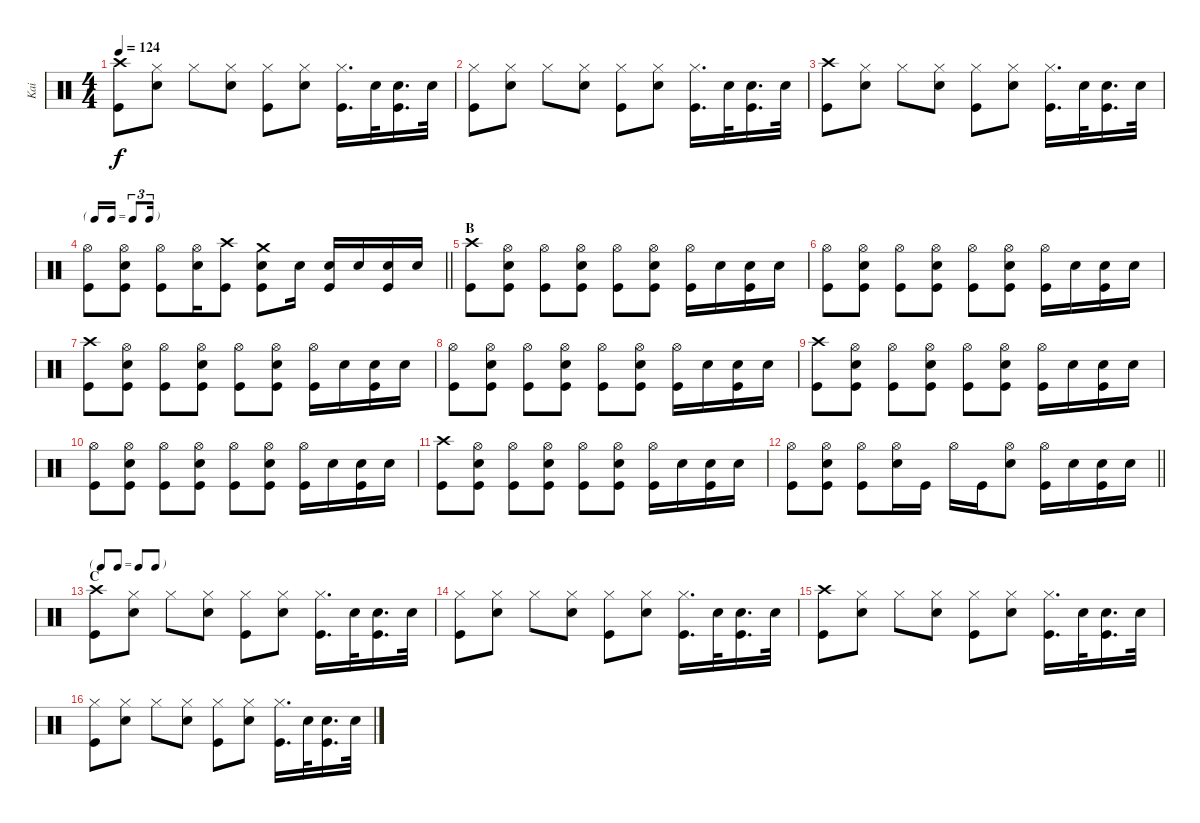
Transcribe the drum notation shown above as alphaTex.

\track ("Kai" "Kai") {instrument percussion}
\staff {score}
\articulation defaults
\ts (4 4)
\tempo 124
\clef neutral
\ks c
("Kick (hit)" "Crash high (hit)").8{dy f} ("Hi-Hat (closed)" "Snare (hit) 2").8 "Hi-Hat (closed)".8 ("Hi-Hat (closed)" "Snare (hit) 2").8 ("Kick (hit)" "Hi-Hat (closed)").8 ("Snare (hit) 2" "Hi-Hat (closed)").8 ("Kick (hit)" "Hi-Hat (closed)").16{d} "Snare (hit) 2".32 ("Snare (hit) 2" "Kick (hit)").16{d} "Snare (hit) 2".32 |
("Hi-Hat (closed)" "Kick (hit)").8 ("Hi-Hat (closed)" "Snare (hit) 2").8 "Hi-Hat (closed)".8 ("Hi-Hat (closed)" "Snare (hit) 2").8 ("Kick (hit)" "Hi-Hat (closed)").8 ("Snare (hit) 2" "Hi-Hat (closed)").8 ("Kick (hit)" "Hi-Hat (closed)").16{d} "Snare (hit) 2".32 ("Snare (hit) 2" "Kick (hit)").16{d} "Snare (hit) 2".32 |
("Kick (hit)" "Crash high (hit)").8 ("Hi-Hat (closed)" "Snare (hit) 2").8 "Hi-Hat (closed)".8 ("Hi-Hat (closed)" "Snare (hit) 2").8 ("Kick (hit)" "Hi-Hat (closed)").8 ("Snare (hit) 2" "Hi-Hat (closed)").8 ("Kick (hit)" "Hi-Hat (closed)").16{d} "Snare (hit) 2".32 ("Snare (hit) 2" "Kick (hit)").16{d} "Snare (hit) 2".32 |
\tf triplet16th
\barLineRight lightlight
("Hi-Hat (open)" "Kick (hit)").8 ("Hi-Hat (open)" "Snare (hit) 2" "Kick (hit)").8 ("Hi-Hat (open)" "Kick (hit)").8 ("Hi-Hat (open)" "Snare (hit) 2").16 ("Kick (hit)" "Crash high (hit)").8 ("Crash medium (hit)" "Snare (hit) 2" "Kick (hit)").8 "Snare (hit) 2".16 ("Snare (hit) 2" "Kick (hit)").16 "Snare (hit) 2".16 ("Snare (hit) 2" "Kick (hit)").16 "Snare (hit) 2".16 |
\section ("" "B")
("Kick (hit)" "Crash high (hit)").8 ("Hi-Hat (open)" "Snare (hit) 2" "Kick (hit)").8 ("Hi-Hat (open)" "Kick (hit)").8 ("Hi-Hat (open)" "Snare (hit) 2" "Kick (hit)").8 ("Kick (hit)" "Hi-Hat (open)").8 ("Snare (hit) 2" "Hi-Hat (open)" "Kick (hit)").8 ("Kick (hit)" "Hi-Hat (open)").16 "Snare (hit) 2".16 ("Snare (hit) 2" "Kick (hit)").16 "Snare (hit) 2".16 |
("Hi-Hat (open)" "Kick (hit)").8 ("Hi-Hat (open)" "Snare (hit) 2" "Kick (hit)").8 ("Hi-Hat (open)" "Kick (hit)").8 ("Hi-Hat (open)" "Snare (hit) 2" "Kick (hit)").8 ("Kick (hit)" "Hi-Hat (open)").8 ("Snare (hit) 2" "Hi-Hat (open)" "Kick (hit)").8 ("Kick (hit)" "Hi-Hat (open)").16 "Snare (hit) 2".16 ("Snare (hit) 2" "Kick (hit)").16 "Snare (hit) 2".16 |
("Kick (hit)" "Crash high (hit)").8 ("Hi-Hat (open)" "Snare (hit) 2" "Kick (hit)").8 ("Hi-Hat (open)" "Kick (hit)").8 ("Hi-Hat (open)" "Snare (hit) 2" "Kick (hit)").8 ("Kick (hit)" "Hi-Hat (open)").8 ("Snare (hit) 2" "Hi-Hat (open)" "Kick (hit)").8 ("Kick (hit)" "Hi-Hat (open)").16 "Snare (hit) 2".16 ("Snare (hit) 2" "Kick (hit)").16 "Snare (hit) 2".16 |
("Hi-Hat (open)" "Kick (hit)").8 ("Hi-Hat (open)" "Snare (hit) 2" "Kick (hit)").8 ("Hi-Hat (open)" "Kick (hit)").8 ("Hi-Hat (open)" "Snare (hit) 2" "Kick (hit)").8 ("Kick (hit)" "Hi-Hat (open)").8 ("Snare (hit) 2" "Hi-Hat (open)" "Kick (hit)").8 ("Kick (hit)" "Hi-Hat (open)").16 "Snare (hit) 2".16 ("Snare (hit) 2" "Kick (hit)").16 "Snare (hit) 2".16 |
("Kick (hit)" "Crash high (hit)").8 ("Hi-Hat (open)" "Snare (hit) 2" "Kick (hit)").8 ("Hi-Hat (open)" "Kick (hit)").8 ("Hi-Hat (open)" "Snare (hit) 2" "Kick (hit)").8 ("Kick (hit)" "Hi-Hat (open)").8 ("Snare (hit) 2" "Hi-Hat (open)" "Kick (hit)").8 ("Kick (hit)" "Hi-Hat (open)").16 "Snare (hit) 2".16 ("Snare (hit) 2" "Kick (hit)").16 "Snare (hit) 2".16 |
("Hi-Hat (open)" "Kick (hit)").8 ("Hi-Hat (open)" "Snare (hit) 2" "Kick (hit)").8 ("Hi-Hat (open)" "Kick (hit)").8 ("Hi-Hat (open)" "Snare (hit) 2" "Kick (hit)").8 ("Kick (hit)" "Hi-Hat (open)").8 ("Snare (hit) 2" "Hi-Hat (open)" "Kick (hit)").8 ("Kick (hit)" "Hi-Hat (open)").16 "Snare (hit) 2".16 ("Snare (hit) 2" "Kick (hit)").16 "Snare (hit) 2".16 |
("Kick (hit)" "Crash high (hit)").8 ("Hi-Hat (open)" "Snare (hit) 2" "Kick (hit)").8 ("Hi-Hat (open)" "Kick (hit)").8 ("Hi-Hat (open)" "Snare (hit) 2" "Kick (hit)").8 ("Kick (hit)" "Hi-Hat (open)").8 ("Snare (hit) 2" "Hi-Hat (open)" "Kick (hit)").8 ("Kick (hit)" "Hi-Hat (open)").16 "Snare (hit) 2".16 ("Snare (hit) 2" "Kick (hit)").16 "Snare (hit) 2".16 |
\barLineRight lightlight
("Hi-Hat (open)" "Kick (hit)").8 ("Hi-Hat (open)" "Snare (hit) 2" "Kick (hit)").8 ("Hi-Hat (open)" "Kick (hit)").8 ("Hi-Hat (open)" "Snare (hit) 2").16 "Kick (hit)".16 "Hi-Hat (open)".16 "Kick (hit)".16 ("Snare (hit) 2" "Hi-Hat (open)").8 ("Kick (hit)" "Hi-Hat (open)").16 "Snare (hit) 2".16 ("Snare (hit) 2" "Kick (hit)").16 "Snare (hit) 2".16 |
\tf none
\section ("" "C")
("Kick (hit)" "Crash high (hit)").8 ("Hi-Hat (closed)" "Snare (hit) 2").8 "Hi-Hat (closed)".8 ("Hi-Hat (closed)" "Snare (hit) 2").8 ("Kick (hit)" "Hi-Hat (closed)").8 ("Snare (hit) 2" "Hi-Hat (closed)").8 ("Kick (hit)" "Hi-Hat (closed)").16{d} "Snare (hit) 2".32 ("Snare (hit) 2" "Kick (hit)").16{d} "Snare (hit) 2".32 |
("Hi-Hat (closed)" "Kick (hit)").8 ("Hi-Hat (closed)" "Snare (hit) 2").8 "Hi-Hat (closed)".8 ("Hi-Hat (closed)" "Snare (hit) 2").8 ("Kick (hit)" "Hi-Hat (closed)").8 ("Snare (hit) 2" "Hi-Hat (closed)").8 ("Kick (hit)" "Hi-Hat (closed)").16{d} "Snare (hit) 2".32 ("Snare (hit) 2" "Kick (hit)").16{d} "Snare (hit) 2".32 |
("Kick (hit)" "Crash high (hit)").8 ("Hi-Hat (closed)" "Snare (hit) 2").8 "Hi-Hat (closed)".8 ("Hi-Hat (closed)" "Snare (hit) 2").8 ("Kick (hit)" "Hi-Hat (closed)").8 ("Snare (hit) 2" "Hi-Hat (closed)").8 ("Kick (hit)" "Hi-Hat (closed)").16{d} "Snare (hit) 2".32 ("Snare (hit) 2" "Kick (hit)").16{d} "Snare (hit) 2".32 |
("Hi-Hat (closed)" "Kick (hit)").8 ("Hi-Hat (closed)" "Snare (hit) 2").8 "Hi-Hat (closed)".8 ("Hi-Hat (closed)" "Snare (hit) 2").8 ("Kick (hit)" "Hi-Hat (closed)").8 ("Snare (hit) 2" "Hi-Hat (closed)").8 ("Kick (hit)" "Hi-Hat (closed)").16{d} "Snare (hit) 2".32 ("Snare (hit) 2" "Kick (hit)").16{d} "Snare (hit) 2".32
